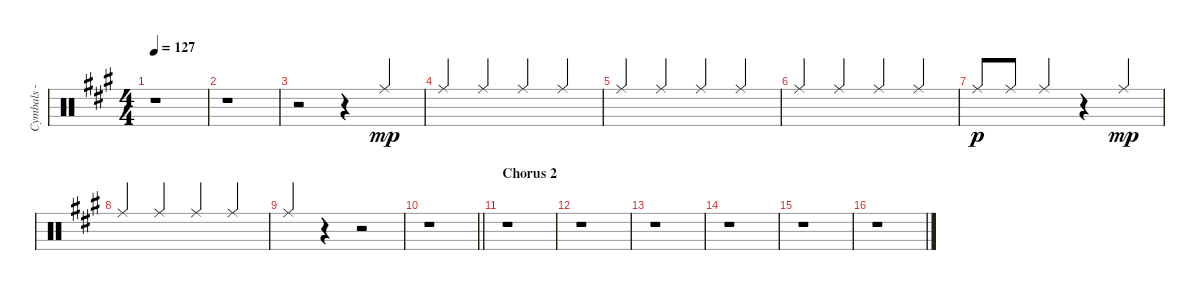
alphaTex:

\track ("Cymbals - ride" "Cymbals - ") {instrument percussion}
\staff {score}
\articulation defaults
\ts (4 4)
\tempo 127
\clef neutral
\ks a
r.1{dy p} |
r.1 |
r.2 r.4 "Ride (middle)".4{dy mp beam Up} |
"Ride (middle)".4{beam Up} "Ride (middle)".4{beam Up} "Ride (middle)".4{beam Up} "Ride (middle)".4{beam Up} |
"Ride (middle)".4{beam Up} "Ride (middle)".4{beam Up} "Ride (middle)".4{beam Up} "Ride (middle)".4{beam Up} |
"Ride (middle)".4{beam Up} "Ride (middle)".4{beam Up} "Ride (middle)".4{beam Up} "Ride (middle)".4{beam Up} |
"Ride (middle)".8{dy p beam Up} "Ride (middle)".8{beam Up beam merge} "Ride (middle)".4{beam Up} r.4 "Ride (middle)".4{dy mp beam Up} |
"Ride (middle)".4{beam Up} "Ride (middle)".4{beam Up} "Ride (middle)".4{beam Up} "Ride (middle)".4{beam Up} |
"Ride (middle)".4{beam Up} r.4 r.2 |
\barLineRight lightlight
r.1 |
\section ("" "Chorus 2")
r.1 |
r.1 |
r.1 |
r.1 |
r.1 |
r.1
